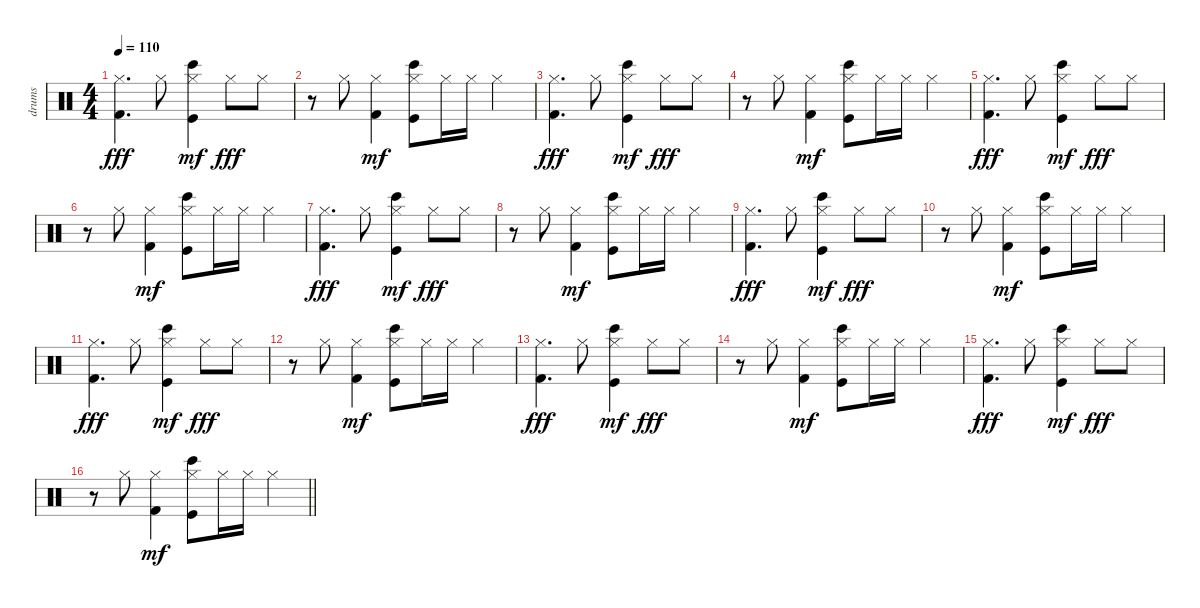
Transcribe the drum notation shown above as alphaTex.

\track ("drums" "drums") {instrument percussion}
\staff {score}
\articulation defaults
\ts (4 4)
\section ("" "")
\tempo 110
\clef neutral
\ks c
("Kick (hit) 2" "Hi-Hat (closed)").4{d dy fff} "Hi-Hat (closed)".8 ("Hi-Hat (closed)" "Bongo High (hit)" "Kick (hit)").4{dy mf} "Hi-Hat (closed)".8{dy fff} "Hi-Hat (closed)".8 |
r.8 "Hi-Hat (closed)".8 ("Hi-Hat (closed)" "Kick (hit) 2").4{dy mf} ("Hi-Hat (closed)" "Bongo High (hit)" "Kick (hit)").8 "Hi-Hat (closed)".16 "Hi-Hat (closed)".16 "Hi-Hat (closed)".4 |
("Kick (hit) 2" "Hi-Hat (closed)").4{d dy fff} "Hi-Hat (closed)".8 ("Hi-Hat (closed)" "Bongo High (hit)" "Kick (hit)").4{dy mf} "Hi-Hat (closed)".8{dy fff} "Hi-Hat (closed)".8 |
r.8 "Hi-Hat (closed)".8 ("Hi-Hat (closed)" "Kick (hit) 2").4{dy mf} ("Hi-Hat (closed)" "Bongo High (hit)" "Kick (hit)").8 "Hi-Hat (closed)".16 "Hi-Hat (closed)".16 "Hi-Hat (closed)".4 |
("Kick (hit) 2" "Hi-Hat (closed)").4{d dy fff} "Hi-Hat (closed)".8 ("Hi-Hat (closed)" "Bongo High (hit)" "Kick (hit)").4{dy mf} "Hi-Hat (closed)".8{dy fff} "Hi-Hat (closed)".8 |
r.8 "Hi-Hat (closed)".8 ("Hi-Hat (closed)" "Kick (hit) 2").4{dy mf} ("Hi-Hat (closed)" "Bongo High (hit)" "Kick (hit)").8 "Hi-Hat (closed)".16 "Hi-Hat (closed)".16 "Hi-Hat (closed)".4 |
("Kick (hit) 2" "Hi-Hat (closed)").4{d dy fff} "Hi-Hat (closed)".8 ("Hi-Hat (closed)" "Bongo High (hit)" "Kick (hit)").4{dy mf} "Hi-Hat (closed)".8{dy fff} "Hi-Hat (closed)".8 |
r.8 "Hi-Hat (closed)".8 ("Hi-Hat (closed)" "Kick (hit) 2").4{dy mf} ("Hi-Hat (closed)" "Bongo High (hit)" "Kick (hit)").8 "Hi-Hat (closed)".16 "Hi-Hat (closed)".16 "Hi-Hat (closed)".4 |
("Kick (hit) 2" "Hi-Hat (closed)").4{d dy fff} "Hi-Hat (closed)".8 ("Hi-Hat (closed)" "Bongo High (hit)" "Kick (hit)").4{dy mf} "Hi-Hat (closed)".8{dy fff} "Hi-Hat (closed)".8 |
r.8 "Hi-Hat (closed)".8 ("Hi-Hat (closed)" "Kick (hit) 2").4{dy mf} ("Hi-Hat (closed)" "Bongo High (hit)" "Kick (hit)").8 "Hi-Hat (closed)".16 "Hi-Hat (closed)".16 "Hi-Hat (closed)".4 |
("Kick (hit) 2" "Hi-Hat (closed)").4{d dy fff} "Hi-Hat (closed)".8 ("Hi-Hat (closed)" "Bongo High (hit)" "Kick (hit)").4{dy mf} "Hi-Hat (closed)".8{dy fff} "Hi-Hat (closed)".8 |
r.8 "Hi-Hat (closed)".8 ("Hi-Hat (closed)" "Kick (hit) 2").4{dy mf} ("Hi-Hat (closed)" "Bongo High (hit)" "Kick (hit)").8 "Hi-Hat (closed)".16 "Hi-Hat (closed)".16 "Hi-Hat (closed)".4 |
("Kick (hit) 2" "Hi-Hat (closed)").4{d dy fff} "Hi-Hat (closed)".8 ("Hi-Hat (closed)" "Bongo High (hit)" "Kick (hit)").4{dy mf} "Hi-Hat (closed)".8{dy fff} "Hi-Hat (closed)".8 |
r.8 "Hi-Hat (closed)".8 ("Hi-Hat (closed)" "Kick (hit) 2").4{dy mf} ("Hi-Hat (closed)" "Bongo High (hit)" "Kick (hit)").8 "Hi-Hat (closed)".16 "Hi-Hat (closed)".16 "Hi-Hat (closed)".4 |
("Kick (hit) 2" "Hi-Hat (closed)").4{d dy fff} "Hi-Hat (closed)".8 ("Hi-Hat (closed)" "Bongo High (hit)" "Kick (hit)").4{dy mf} "Hi-Hat (closed)".8{dy fff} "Hi-Hat (closed)".8 |
\barLineRight lightlight
r.8 "Hi-Hat (closed)".8 ("Hi-Hat (closed)" "Kick (hit) 2").4{dy mf} ("Hi-Hat (closed)" "Bongo High (hit)" "Kick (hit)").8 "Hi-Hat (closed)".16 "Hi-Hat (closed)".16 "Hi-Hat (closed)".4
